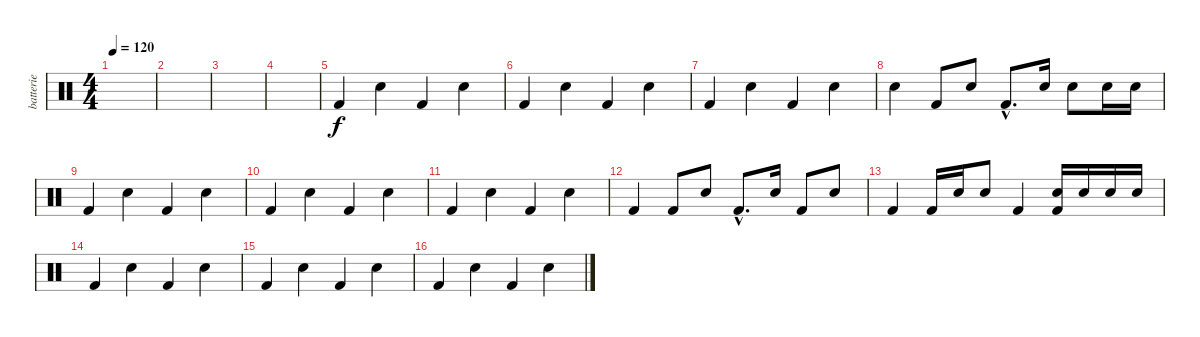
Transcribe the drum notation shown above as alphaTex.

\track ("batterie" "batterie") {instrument percussion}
\staff {score}
\articulation defaults
\ts (4 4)
\tempo 120
\clef neutral
\ks c
|
|
|
|
"Kick (hit) 2".4 "Electric Snare (hit)".4 "Kick (hit) 2".4 "Electric Snare (hit)".4 |
"Kick (hit) 2".4 "Electric Snare (hit)".4 "Kick (hit) 2".4 "Electric Snare (hit)".4 |
"Kick (hit) 2".4 "Electric Snare (hit)".4 "Kick (hit) 2".4 "Electric Snare (hit)".4 |
"Electric Snare (hit)".4 "Kick (hit) 2".8 "Electric Snare (hit)".8 "Kick (hit) 2"{hac}.8{d} "Electric Snare (hit)".16 "Electric Snare (hit)".8 "Electric Snare (hit)".16 "Electric Snare (hit)".16 |
"Kick (hit) 2".4 "Electric Snare (hit)".4 "Kick (hit) 2".4 "Electric Snare (hit)".4 |
"Kick (hit) 2".4 "Electric Snare (hit)".4 "Kick (hit) 2".4 "Electric Snare (hit)".4 |
"Kick (hit) 2".4 "Electric Snare (hit)".4 "Kick (hit) 2".4 "Electric Snare (hit)".4 |
"Kick (hit) 2".4 "Kick (hit) 2".8 "Electric Snare (hit)".8 "Kick (hit) 2"{hac}.8{d} "Electric Snare (hit)".16 "Kick (hit) 2".8 "Electric Snare (hit)".8 |
"Kick (hit) 2".4 "Kick (hit) 2".16 "Electric Snare (hit)".16 "Electric Snare (hit)".8 "Kick (hit) 2".4 ("Electric Snare (hit)" "Kick (hit) 2").16 "Electric Snare (hit)".16 "Electric Snare (hit)".16 "Electric Snare (hit)".16 |
"Kick (hit) 2".4 "Electric Snare (hit)".4 "Kick (hit) 2".4 "Electric Snare (hit)".4 |
"Kick (hit) 2".4 "Electric Snare (hit)".4 "Kick (hit) 2".4 "Electric Snare (hit)".4 |
"Kick (hit) 2".4 "Electric Snare (hit)".4 "Kick (hit) 2".4 "Electric Snare (hit)".4
